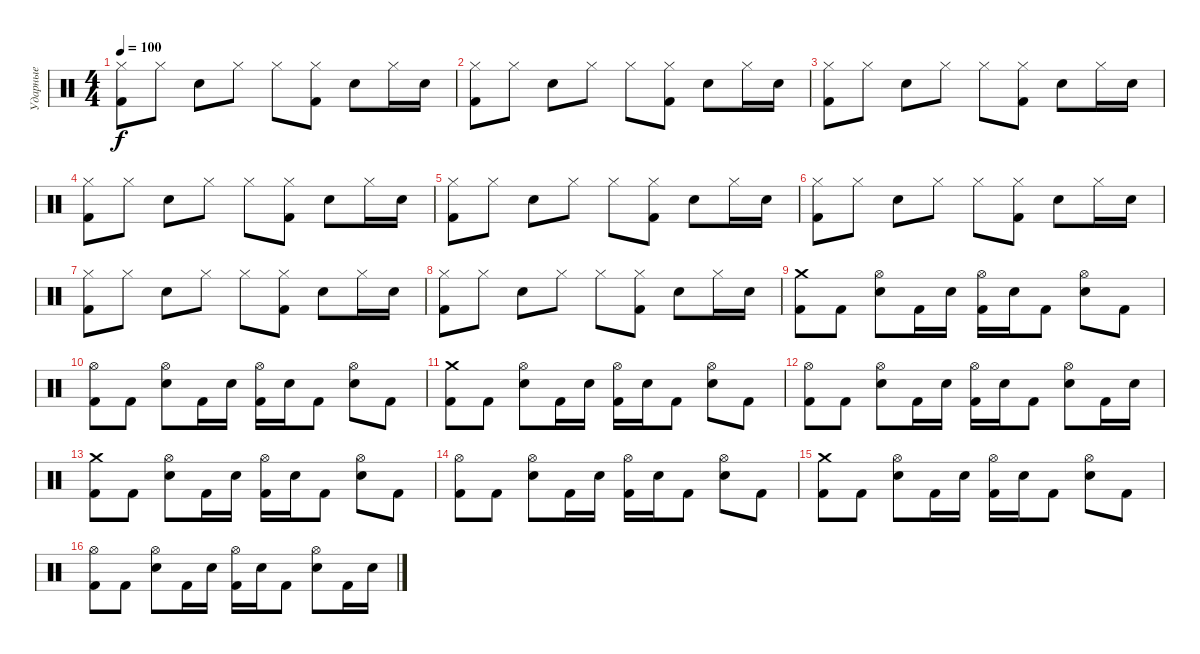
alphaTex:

\track ("Ударные" "Ударные") {instrument percussion}
\staff {score}
\articulation defaults
\ts (4 4)
\tempo 100
\clef neutral
\ks c
("Hi-Hat (closed)" "Kick (hit) 2").8{dy f} "Hi-Hat (closed)".8 "Electric Snare (hit)".8 "Hi-Hat (closed)".8 "Hi-Hat (closed)".8 ("Hi-Hat (closed)" "Kick (hit) 2").8 "Electric Snare (hit)".8 "Hi-Hat (closed)".16 "Electric Snare (hit)".16 |
("Hi-Hat (closed)" "Kick (hit) 2").8 "Hi-Hat (closed)".8 "Electric Snare (hit)".8 "Hi-Hat (closed)".8 "Hi-Hat (closed)".8 ("Hi-Hat (closed)" "Kick (hit) 2").8 "Electric Snare (hit)".8 "Hi-Hat (closed)".16 "Electric Snare (hit)".16 |
("Hi-Hat (closed)" "Kick (hit) 2").8 "Hi-Hat (closed)".8 "Electric Snare (hit)".8 "Hi-Hat (closed)".8 "Hi-Hat (closed)".8 ("Hi-Hat (closed)" "Kick (hit) 2").8 "Electric Snare (hit)".8 "Hi-Hat (closed)".16 "Electric Snare (hit)".16 |
("Hi-Hat (closed)" "Kick (hit) 2").8 "Hi-Hat (closed)".8 "Electric Snare (hit)".8 "Hi-Hat (closed)".8 "Hi-Hat (closed)".8 ("Hi-Hat (closed)" "Kick (hit) 2").8 "Electric Snare (hit)".8 "Hi-Hat (closed)".16 "Electric Snare (hit)".16 |
("Hi-Hat (closed)" "Kick (hit) 2").8 "Hi-Hat (closed)".8 "Electric Snare (hit)".8 "Hi-Hat (closed)".8 "Hi-Hat (closed)".8 ("Hi-Hat (closed)" "Kick (hit) 2").8 "Electric Snare (hit)".8 "Hi-Hat (closed)".16 "Electric Snare (hit)".16 |
("Hi-Hat (closed)" "Kick (hit) 2").8 "Hi-Hat (closed)".8 "Electric Snare (hit)".8 "Hi-Hat (closed)".8 "Hi-Hat (closed)".8 ("Hi-Hat (closed)" "Kick (hit) 2").8 "Electric Snare (hit)".8 "Hi-Hat (closed)".16 "Electric Snare (hit)".16 |
("Hi-Hat (closed)" "Kick (hit) 2").8 "Hi-Hat (closed)".8 "Electric Snare (hit)".8 "Hi-Hat (closed)".8 "Hi-Hat (closed)".8 ("Hi-Hat (closed)" "Kick (hit) 2").8 "Electric Snare (hit)".8 "Hi-Hat (closed)".16 "Electric Snare (hit)".16 |
("Hi-Hat (closed)" "Kick (hit) 2").8 "Hi-Hat (closed)".8 "Electric Snare (hit)".8 "Hi-Hat (closed)".8 "Hi-Hat (closed)".8 ("Hi-Hat (closed)" "Kick (hit) 2").8 "Electric Snare (hit)".8 "Hi-Hat (closed)".16 "Electric Snare (hit)".16 |
("Crash medium (hit)" "Kick (hit) 2").8 "Kick (hit) 2".8 ("Hi-Hat (open)" "Electric Snare (hit)").8 "Kick (hit) 2".16 "Electric Snare (hit)".16 ("Hi-Hat (open)" "Kick (hit) 2").16 "Electric Snare (hit)".16 "Kick (hit) 2".8 ("Hi-Hat (open)" "Electric Snare (hit)").8 "Kick (hit) 2".8 |
("Hi-Hat (open)" "Kick (hit) 2").8 "Kick (hit) 2".8 ("Hi-Hat (open)" "Electric Snare (hit)").8 "Kick (hit) 2".16 "Electric Snare (hit)".16 ("Hi-Hat (open)" "Kick (hit) 2").16 "Electric Snare (hit)".16 "Kick (hit) 2".8 ("Hi-Hat (open)" "Electric Snare (hit)").8 "Kick (hit) 2".8 |
("Crash medium (hit)" "Kick (hit) 2").8 "Kick (hit) 2".8 ("Hi-Hat (open)" "Electric Snare (hit)").8 "Kick (hit) 2".16 "Electric Snare (hit)".16 ("Hi-Hat (open)" "Kick (hit) 2").16 "Electric Snare (hit)".16 "Kick (hit) 2".8 ("Hi-Hat (open)" "Electric Snare (hit)").8 "Kick (hit) 2".8 |
("Hi-Hat (open)" "Kick (hit) 2").8 "Kick (hit) 2".8 ("Hi-Hat (open)" "Electric Snare (hit)").8 "Kick (hit) 2".16 "Electric Snare (hit)".16 ("Hi-Hat (open)" "Kick (hit) 2").16 "Electric Snare (hit)".16 "Kick (hit) 2".8 ("Hi-Hat (open)" "Electric Snare (hit)").8 "Kick (hit) 2".16 "Electric Snare (hit)".16 |
("Crash medium (hit)" "Kick (hit) 2").8 "Kick (hit) 2".8 ("Hi-Hat (open)" "Electric Snare (hit)").8 "Kick (hit) 2".16 "Electric Snare (hit)".16 ("Hi-Hat (open)" "Kick (hit) 2").16 "Electric Snare (hit)".16 "Kick (hit) 2".8 ("Hi-Hat (open)" "Electric Snare (hit)").8 "Kick (hit) 2".8 |
("Hi-Hat (open)" "Kick (hit) 2").8 "Kick (hit) 2".8 ("Hi-Hat (open)" "Electric Snare (hit)").8 "Kick (hit) 2".16 "Electric Snare (hit)".16 ("Hi-Hat (open)" "Kick (hit) 2").16 "Electric Snare (hit)".16 "Kick (hit) 2".8 ("Hi-Hat (open)" "Electric Snare (hit)").8 "Kick (hit) 2".8 |
("Crash medium (hit)" "Kick (hit) 2").8 "Kick (hit) 2".8 ("Hi-Hat (open)" "Electric Snare (hit)").8 "Kick (hit) 2".16 "Electric Snare (hit)".16 ("Hi-Hat (open)" "Kick (hit) 2").16 "Electric Snare (hit)".16 "Kick (hit) 2".8 ("Hi-Hat (open)" "Electric Snare (hit)").8 "Kick (hit) 2".8 |
("Hi-Hat (open)" "Kick (hit) 2").8 "Kick (hit) 2".8 ("Hi-Hat (open)" "Electric Snare (hit)").8 "Kick (hit) 2".16 "Electric Snare (hit)".16 ("Hi-Hat (open)" "Kick (hit) 2").16 "Electric Snare (hit)".16 "Kick (hit) 2".8 ("Hi-Hat (open)" "Electric Snare (hit)").8 "Kick (hit) 2".16 "Electric Snare (hit)".16
